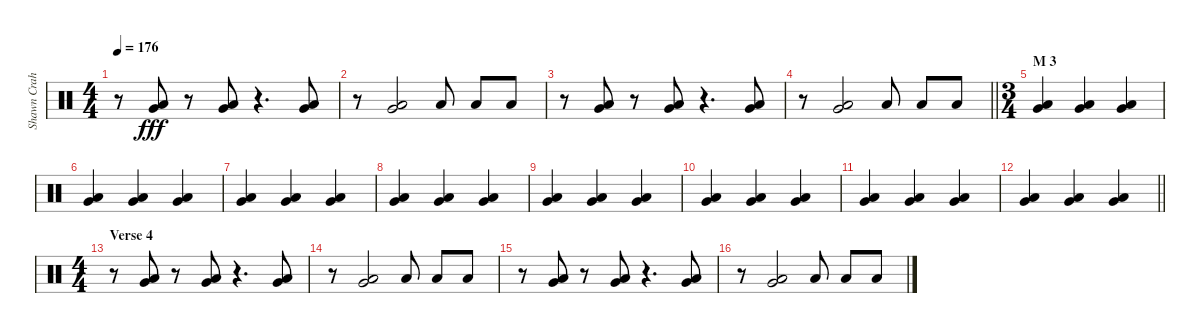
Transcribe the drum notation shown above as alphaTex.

\track ("Shawn Crahan" "Shawn Crah") {instrument percussion}
\staff {score}
\articulation defaults
\ts (4 4)
\tempo 176
\clef neutral
\ks c
r.8{dy fff} ("Very Low Tom (hit)" "Low Floor Tom (hit)").8 r.8 ("Very Low Tom (hit)" "Low Floor Tom (hit)").8 r.4{d} ("Very Low Tom (hit)" "Low Floor Tom (hit)").8 |
r.8 ("Very Low Tom (hit)" "Low Floor Tom (hit)").2 "Low Floor Tom (hit)".8 "Low Floor Tom (hit)".8 "Low Floor Tom (hit)".8 |
r.8 ("Very Low Tom (hit)" "Low Floor Tom (hit)").8 r.8 ("Very Low Tom (hit)" "Low Floor Tom (hit)").8 r.4{d} ("Very Low Tom (hit)" "Low Floor Tom (hit)").8 |
\barLineRight lightlight
r.8 ("Very Low Tom (hit)" "Low Floor Tom (hit)").2 "Low Floor Tom (hit)".8 "Low Floor Tom (hit)".8 "Low Floor Tom (hit)".8 |
\ts (3 4)
\section ("" "M 3")
("Very Low Tom (hit)" "Low Floor Tom (hit)").4 ("Very Low Tom (hit)" "Low Floor Tom (hit)").4 ("Very Low Tom (hit)" "Low Floor Tom (hit)").4 |
("Very Low Tom (hit)" "Low Floor Tom (hit)").4 ("Very Low Tom (hit)" "Low Floor Tom (hit)").4 ("Very Low Tom (hit)" "Low Floor Tom (hit)").4 |
("Very Low Tom (hit)" "Low Floor Tom (hit)").4 ("Very Low Tom (hit)" "Low Floor Tom (hit)").4 ("Very Low Tom (hit)" "Low Floor Tom (hit)").4 |
("Very Low Tom (hit)" "Low Floor Tom (hit)").4 ("Very Low Tom (hit)" "Low Floor Tom (hit)").4 ("Very Low Tom (hit)" "Low Floor Tom (hit)").4 |
("Very Low Tom (hit)" "Low Floor Tom (hit)").4 ("Very Low Tom (hit)" "Low Floor Tom (hit)").4 ("Very Low Tom (hit)" "Low Floor Tom (hit)").4 |
("Very Low Tom (hit)" "Low Floor Tom (hit)").4 ("Very Low Tom (hit)" "Low Floor Tom (hit)").4 ("Very Low Tom (hit)" "Low Floor Tom (hit)").4 |
("Very Low Tom (hit)" "Low Floor Tom (hit)").4 ("Very Low Tom (hit)" "Low Floor Tom (hit)").4 ("Very Low Tom (hit)" "Low Floor Tom (hit)").4 |
\barLineRight lightlight
("Very Low Tom (hit)" "Low Floor Tom (hit)").4 ("Very Low Tom (hit)" "Low Floor Tom (hit)").4 ("Very Low Tom (hit)" "Low Floor Tom (hit)").4 |
\ts (4 4)
\section ("" "Verse 4")
r.8 ("Very Low Tom (hit)" "Low Floor Tom (hit)").8 r.8 ("Very Low Tom (hit)" "Low Floor Tom (hit)").8 r.4{d} ("Very Low Tom (hit)" "Low Floor Tom (hit)").8 |
r.8 ("Very Low Tom (hit)" "Low Floor Tom (hit)").2 "Low Floor Tom (hit)".8 "Low Floor Tom (hit)".8 "Low Floor Tom (hit)".8 |
r.8 ("Very Low Tom (hit)" "Low Floor Tom (hit)").8 r.8 ("Very Low Tom (hit)" "Low Floor Tom (hit)").8 r.4{d} ("Very Low Tom (hit)" "Low Floor Tom (hit)").8 |
r.8 ("Very Low Tom (hit)" "Low Floor Tom (hit)").2 "Low Floor Tom (hit)".8 "Low Floor Tom (hit)".8 "Low Floor Tom (hit)".8
